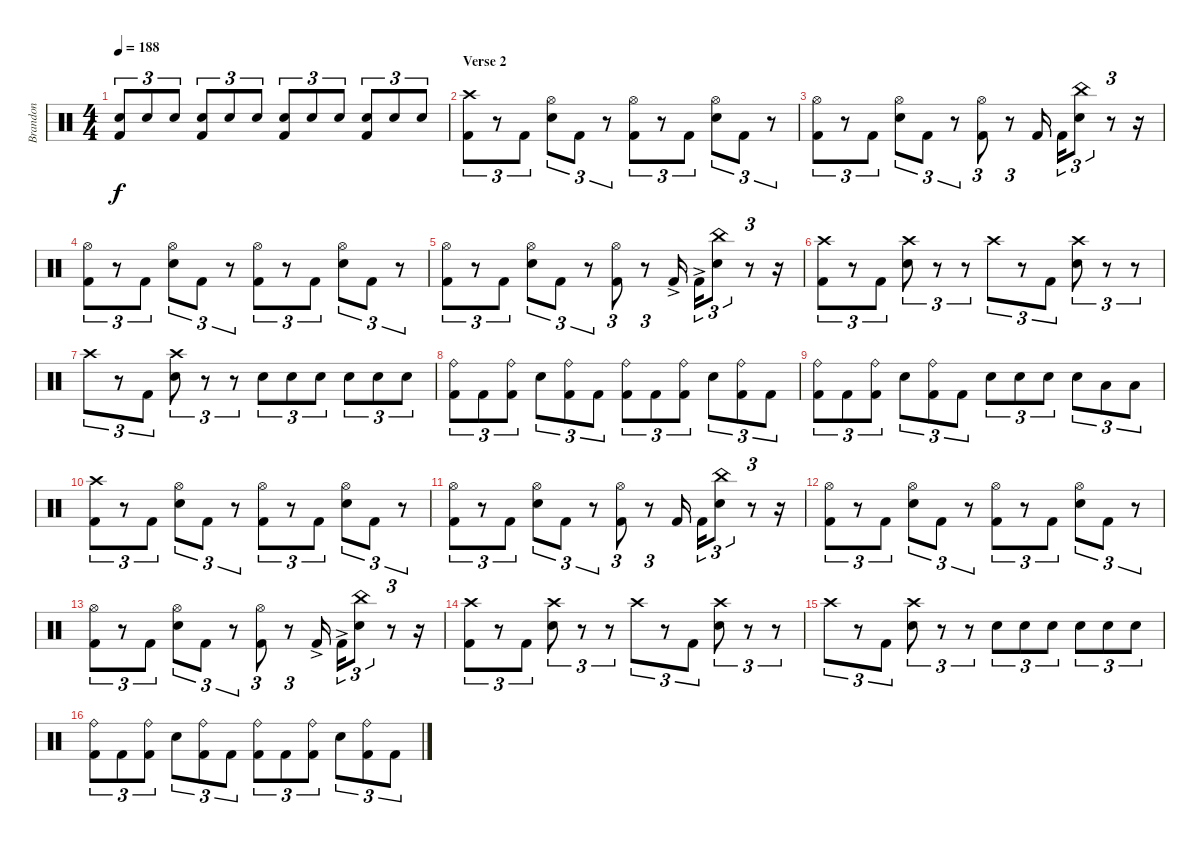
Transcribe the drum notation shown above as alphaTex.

\track ("Brandon" "Brandon") {instrument percussion}
\staff {score}
\articulation defaults
\ts (4 4)
\tempo 188
\clef neutral
\ks c
("Snare (hit) 2" "Kick (hit) 2").8{tu (3 2) dy f} "Snare (hit) 2".8{tu (3 2)} "Snare (hit) 2".8{tu (3 2)} ("Snare (hit) 2" "Kick (hit) 2").8{tu (3 2)} "Snare (hit) 2".8{tu (3 2)} "Snare (hit) 2".8{tu (3 2)} ("Snare (hit) 2" "Kick (hit) 2").8{tu (3 2)} "Snare (hit) 2".8{tu (3 2)} "Snare (hit) 2".8{tu (3 2)} ("Snare (hit) 2" "Kick (hit) 2").8{tu (3 2)} "Snare (hit) 2".8{tu (3 2)} "Snare (hit) 2".8{tu (3 2)} |
\section ("" "Verse 2")
("Crash high (hit)" "Kick (hit) 2").8{tu (3 2)} r.8{tu (3 2)} "Kick (hit) 2".8{tu (3 2)} ("Hi-Hat (open)" "Snare (hit) 2").8{tu (3 2)} "Kick (hit) 2".8{tu (3 2)} r.8{tu (3 2)} ("Hi-Hat (open)" "Kick (hit) 2").8{tu (3 2)} r.8{tu (3 2)} "Kick (hit) 2".8{tu (3 2)} ("Hi-Hat (open)" "Snare (hit) 2").8{tu (3 2)} "Kick (hit) 2".8{tu (3 2)} r.8{tu (3 2)} |
("Hi-Hat (open)" "Kick (hit) 2").8{tu (3 2)} r.8{tu (3 2)} "Kick (hit) 2".8{tu (3 2)} ("Hi-Hat (open)" "Snare (hit) 2").8{tu (3 2)} "Kick (hit) 2".8{tu (3 2)} r.8{tu (3 2)} ("Hi-Hat (open)" "Kick (hit) 2").8{tu (3 2)} r.8{tu (3 2)} "Kick (hit) 2".16 "Kick (hit) 2".16{tu (3 2)} ("China (hit)" "Snare (hit) 2").8{tu (3 2)} r.8{tu (3 2)} r.16 |
("Hi-Hat (open)" "Kick (hit) 2").8{tu (3 2)} r.8{tu (3 2)} "Kick (hit) 2".8{tu (3 2)} ("Hi-Hat (open)" "Snare (hit) 2").8{tu (3 2)} "Kick (hit) 2".8{tu (3 2)} r.8{tu (3 2)} ("Hi-Hat (open)" "Kick (hit) 2").8{tu (3 2)} r.8{tu (3 2)} "Kick (hit) 2".8{tu (3 2)} ("Hi-Hat (open)" "Snare (hit) 2").8{tu (3 2)} "Kick (hit) 2".8{tu (3 2)} r.8{tu (3 2)} |
("Hi-Hat (open)" "Kick (hit) 2").8{tu (3 2)} r.8{tu (3 2)} "Kick (hit) 2".8{tu (3 2)} ("Hi-Hat (open)" "Snare (hit) 2").8{tu (3 2)} "Kick (hit) 2".8{tu (3 2)} r.8{tu (3 2)} ("Hi-Hat (open)" "Kick (hit) 2").8{tu (3 2)} r.8{tu (3 2)} "Kick (hit) 2"{ac}.16 "Kick (hit) 2"{ac}.16{tu (3 2)} ("China (hit)" "Snare (hit) 2").8{tu (3 2)} r.8{tu (3 2)} r.16 |
("Crash high (hit)" "Kick (hit) 2").8{tu (3 2)} r.8{tu (3 2)} "Kick (hit) 2".8{tu (3 2)} ("Crash high (hit)" "Snare (hit) 2").8{tu (3 2)} r.8{tu (3 2)} r.8{tu (3 2)} "Crash high (hit)".8{tu (3 2)} r.8{tu (3 2)} "Kick (hit) 2".8{tu (3 2)} ("Crash high (hit)" "Snare (hit) 2").8{tu (3 2)} r.8{tu (3 2)} r.8{tu (3 2)} |
"Crash high (hit)".8{tu (3 2)} r.8{tu (3 2)} "Kick (hit) 2".8{tu (3 2)} ("Crash high (hit)" "Snare (hit) 2").8{tu (3 2)} r.8{tu (3 2)} r.8{tu (3 2)} "Snare (hit) 2".8{tu (3 2)} "Snare (hit) 2".8{tu (3 2)} "Snare (hit) 2".8{tu (3 2)} "Snare (hit) 2".8{tu (3 2)} "Snare (hit) 2".8{tu (3 2)} "Snare (hit) 2".8{tu (3 2)} |
("Ride (bell)" "Kick (hit) 2").8{tu (3 2)} "Kick (hit) 2".8{tu (3 2)} ("Ride (bell)" "Kick (hit) 2").8{tu (3 2)} "Snare (hit) 2".8{tu (3 2)} ("Ride (bell)" "Kick (hit) 2").8{tu (3 2)} "Kick (hit) 2".8{tu (3 2)} ("Ride (bell)" "Kick (hit) 2").8{tu (3 2)} "Kick (hit) 2".8{tu (3 2)} ("Ride (bell)" "Kick (hit) 2").8{tu (3 2)} "Snare (hit) 2".8{tu (3 2)} ("Ride (bell)" "Kick (hit) 2").8{tu (3 2)} "Kick (hit) 2".8{tu (3 2)} |
("Ride (bell)" "Kick (hit) 2").8{tu (3 2)} "Kick (hit) 2".8{tu (3 2)} ("Ride (bell)" "Kick (hit) 2").8{tu (3 2)} "Snare (hit) 2".8{tu (3 2)} ("Ride (bell)" "Kick (hit) 2").8{tu (3 2)} "Kick (hit) 2".8{tu (3 2)} "Snare (hit) 2".8{tu (3 2)} "Snare (hit) 2".8{tu (3 2)} "Snare (hit) 2".8{tu (3 2)} "Snare (hit) 2".8{tu (3 2)} "Low Tom (hit)".8{tu (3 2)} "Low Tom (hit)".8{tu (3 2)} |
("Crash high (hit)" "Kick (hit) 2").8{tu (3 2)} r.8{tu (3 2)} "Kick (hit) 2".8{tu (3 2)} ("Hi-Hat (open)" "Snare (hit) 2").8{tu (3 2)} "Kick (hit) 2".8{tu (3 2)} r.8{tu (3 2)} ("Hi-Hat (open)" "Kick (hit) 2").8{tu (3 2)} r.8{tu (3 2)} "Kick (hit) 2".8{tu (3 2)} ("Hi-Hat (open)" "Snare (hit) 2").8{tu (3 2)} "Kick (hit) 2".8{tu (3 2)} r.8{tu (3 2)} |
("Hi-Hat (open)" "Kick (hit) 2").8{tu (3 2)} r.8{tu (3 2)} "Kick (hit) 2".8{tu (3 2)} ("Hi-Hat (open)" "Snare (hit) 2").8{tu (3 2)} "Kick (hit) 2".8{tu (3 2)} r.8{tu (3 2)} ("Hi-Hat (open)" "Kick (hit) 2").8{tu (3 2)} r.8{tu (3 2)} "Kick (hit) 2".16 "Kick (hit) 2".16{tu (3 2)} ("China (hit)" "Snare (hit) 2").8{tu (3 2)} r.8{tu (3 2)} r.16 |
("Hi-Hat (open)" "Kick (hit) 2").8{tu (3 2)} r.8{tu (3 2)} "Kick (hit) 2".8{tu (3 2)} ("Hi-Hat (open)" "Snare (hit) 2").8{tu (3 2)} "Kick (hit) 2".8{tu (3 2)} r.8{tu (3 2)} ("Hi-Hat (open)" "Kick (hit) 2").8{tu (3 2)} r.8{tu (3 2)} "Kick (hit) 2".8{tu (3 2)} ("Hi-Hat (open)" "Snare (hit) 2").8{tu (3 2)} "Kick (hit) 2".8{tu (3 2)} r.8{tu (3 2)} |
("Hi-Hat (open)" "Kick (hit) 2").8{tu (3 2)} r.8{tu (3 2)} "Kick (hit) 2".8{tu (3 2)} ("Hi-Hat (open)" "Snare (hit) 2").8{tu (3 2)} "Kick (hit) 2".8{tu (3 2)} r.8{tu (3 2)} ("Hi-Hat (open)" "Kick (hit) 2").8{tu (3 2)} r.8{tu (3 2)} "Kick (hit) 2"{ac}.16 "Kick (hit) 2"{ac}.16{tu (3 2)} ("China (hit)" "Snare (hit) 2").8{tu (3 2)} r.8{tu (3 2)} r.16 |
("Crash high (hit)" "Kick (hit) 2").8{tu (3 2)} r.8{tu (3 2)} "Kick (hit) 2".8{tu (3 2)} ("Crash high (hit)" "Snare (hit) 2").8{tu (3 2)} r.8{tu (3 2)} r.8{tu (3 2)} "Crash high (hit)".8{tu (3 2)} r.8{tu (3 2)} "Kick (hit) 2".8{tu (3 2)} ("Crash high (hit)" "Snare (hit) 2").8{tu (3 2)} r.8{tu (3 2)} r.8{tu (3 2)} |
"Crash high (hit)".8{tu (3 2)} r.8{tu (3 2)} "Kick (hit) 2".8{tu (3 2)} ("Crash high (hit)" "Snare (hit) 2").8{tu (3 2)} r.8{tu (3 2)} r.8{tu (3 2)} "Snare (hit) 2".8{tu (3 2)} "Snare (hit) 2".8{tu (3 2)} "Snare (hit) 2".8{tu (3 2)} "Snare (hit) 2".8{tu (3 2)} "Snare (hit) 2".8{tu (3 2)} "Snare (hit) 2".8{tu (3 2)} |
("Ride (bell)" "Kick (hit) 2").8{tu (3 2)} "Kick (hit) 2".8{tu (3 2)} ("Ride (bell)" "Kick (hit) 2").8{tu (3 2)} "Snare (hit) 2".8{tu (3 2)} ("Ride (bell)" "Kick (hit) 2").8{tu (3 2)} "Kick (hit) 2".8{tu (3 2)} ("Ride (bell)" "Kick (hit) 2").8{tu (3 2)} "Kick (hit) 2".8{tu (3 2)} ("Ride (bell)" "Kick (hit) 2").8{tu (3 2)} "Snare (hit) 2".8{tu (3 2)} ("Ride (bell)" "Kick (hit) 2").8{tu (3 2)} "Kick (hit) 2".8{tu (3 2)}
